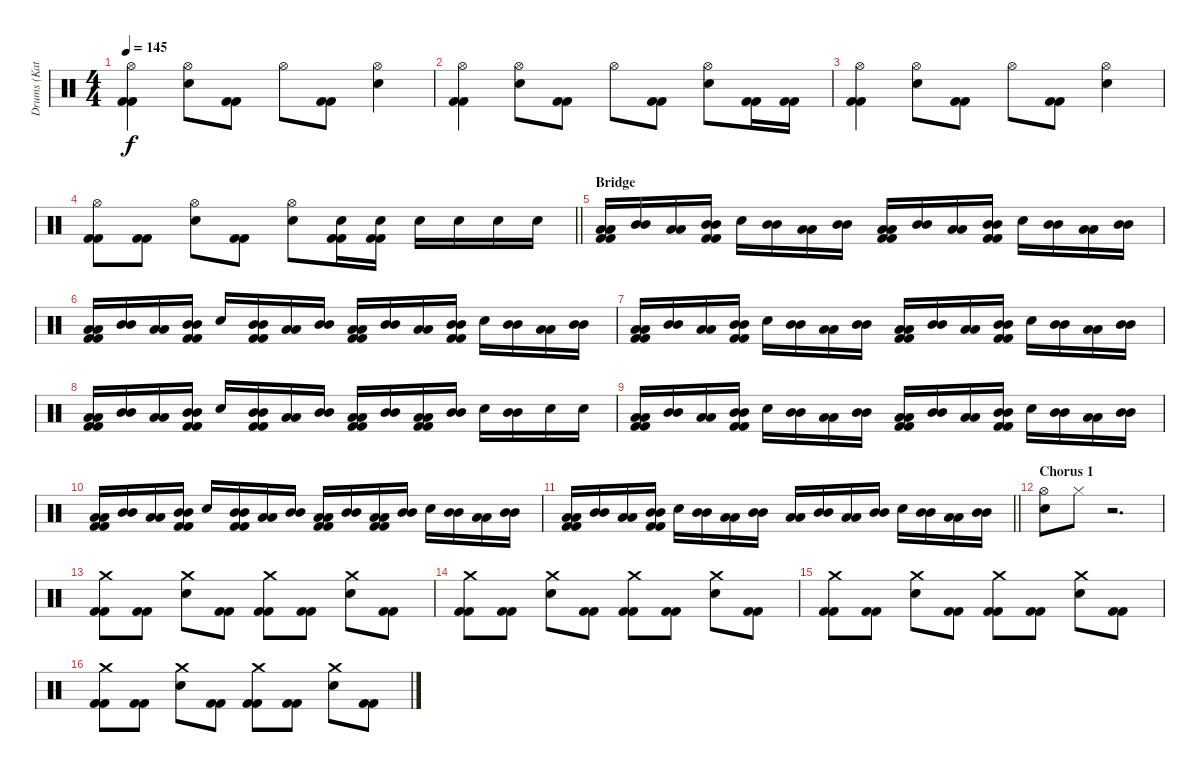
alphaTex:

\track ("Drums (Katsuma)" "Drums (Kat") {instrument percussion}
\staff {score}
\articulation defaults
\ts (4 4)
\tempo 145
\clef neutral
\ks c
("Hi-Hat (open)" "Kick (hit) 2" "Kick (hit) 2").4{dy f} ("Hi-Hat (open)" "Electric Snare (hit)").8 ("Kick (hit) 2" "Kick (hit) 2").8 "Hi-Hat (open)".8 ("Kick (hit) 2" "Kick (hit) 2").8 ("Hi-Hat (open)" "Electric Snare (hit)").4 |
("Hi-Hat (open)" "Kick (hit) 2" "Kick (hit) 2").4 ("Hi-Hat (open)" "Electric Snare (hit)").8 ("Kick (hit) 2" "Kick (hit) 2").8 "Hi-Hat (open)".8 ("Kick (hit) 2" "Kick (hit) 2").8 ("Hi-Hat (open)" "Electric Snare (hit)").8 ("Kick (hit) 2" "Kick (hit) 2").16 ("Kick (hit) 2" "Kick (hit) 2").16 |
("Hi-Hat (open)" "Kick (hit) 2" "Kick (hit) 2").4 ("Hi-Hat (open)" "Electric Snare (hit)").8 ("Kick (hit) 2" "Kick (hit) 2").8 "Hi-Hat (open)".8 ("Kick (hit) 2" "Kick (hit) 2").8 ("Hi-Hat (open)" "Electric Snare (hit)").4 |
\barLineRight lightlight
("Hi-Hat (open)" "Kick (hit) 2" "Kick (hit) 2").8 ("Kick (hit) 2" "Kick (hit) 2").8 ("Hi-Hat (open)" "Electric Snare (hit)").8 ("Kick (hit) 2" "Kick (hit) 2").8 ("Hi-Hat (open)" "Electric Snare (hit)").8 ("Electric Snare (hit)" "Kick (hit) 2" "Kick (hit) 2").16 ("Electric Snare (hit)" "Kick (hit) 2" "Kick (hit) 2").16 "Electric Snare (hit)".16 "Electric Snare (hit)".16 "Electric Snare (hit)".16 "Electric Snare (hit)".16 |
\section ("" "Bridge")
("Low Tom (hit)" "Low Tom (hit)" "Kick (hit) 2" "Kick (hit) 2").16 ("Mid Tom (hit)" "Mid Tom (hit)").16 ("Low Tom (hit)" "Low Tom (hit)").16 ("Mid Tom (hit)" "Mid Tom (hit)" "Kick (hit) 2" "Kick (hit) 2").16 "Electric Snare (hit)".16 ("Mid Tom (hit)" "Mid Tom (hit)").16 ("Low Tom (hit)" "Low Tom (hit)").16 ("Mid Tom (hit)" "Mid Tom (hit)").16 ("Low Tom (hit)" "Low Tom (hit)" "Kick (hit) 2" "Kick (hit) 2").16 ("Mid Tom (hit)" "Mid Tom (hit)").16 ("Low Tom (hit)" "Low Tom (hit)").16 ("Mid Tom (hit)" "Mid Tom (hit)" "Kick (hit) 2" "Kick (hit) 2").16 "Electric Snare (hit)".16 ("Mid Tom (hit)" "Mid Tom (hit)").16 ("Low Tom (hit)" "Low Tom (hit)").16 ("Mid Tom (hit)" "Mid Tom (hit)").16 |
("Low Tom (hit)" "Low Tom (hit)" "Kick (hit) 2" "Kick (hit) 2").16 ("Mid Tom (hit)" "Mid Tom (hit)").16 ("Low Tom (hit)" "Low Tom (hit)").16 ("Mid Tom (hit)" "Mid Tom (hit)" "Kick (hit) 2" "Kick (hit) 2").16 "Electric Snare (hit)".16 ("Mid Tom (hit)" "Mid Tom (hit)" "Kick (hit) 2" "Kick (hit) 2").16 ("Low Tom (hit)" "Low Tom (hit)").16 ("Mid Tom (hit)" "Mid Tom (hit)").16 ("Low Tom (hit)" "Low Tom (hit)" "Kick (hit) 2" "Kick (hit) 2").16 ("Mid Tom (hit)" "Mid Tom (hit)").16 ("Low Tom (hit)" "Low Tom (hit)").16 ("Mid Tom (hit)" "Mid Tom (hit)" "Kick (hit) 2" "Kick (hit) 2").16 "Electric Snare (hit)".16 ("Mid Tom (hit)" "Mid Tom (hit)").16 ("Low Tom (hit)" "Low Tom (hit)").16 ("Mid Tom (hit)" "Mid Tom (hit)").16 |
("Low Tom (hit)" "Low Tom (hit)" "Kick (hit) 2" "Kick (hit) 2").16 ("Mid Tom (hit)" "Mid Tom (hit)").16 ("Low Tom (hit)" "Low Tom (hit)").16 ("Mid Tom (hit)" "Mid Tom (hit)" "Kick (hit) 2" "Kick (hit) 2").16 "Electric Snare (hit)".16 ("Mid Tom (hit)" "Mid Tom (hit)").16 ("Low Tom (hit)" "Low Tom (hit)").16 ("Mid Tom (hit)" "Mid Tom (hit)").16 ("Low Tom (hit)" "Low Tom (hit)" "Kick (hit) 2" "Kick (hit) 2").16 ("Mid Tom (hit)" "Mid Tom (hit)").16 ("Low Tom (hit)" "Low Tom (hit)").16 ("Mid Tom (hit)" "Mid Tom (hit)" "Kick (hit) 2" "Kick (hit) 2").16 "Electric Snare (hit)".16 ("Mid Tom (hit)" "Mid Tom (hit)").16 ("Low Tom (hit)" "Low Tom (hit)").16 ("Mid Tom (hit)" "Mid Tom (hit)").16 |
("Low Tom (hit)" "Low Tom (hit)" "Kick (hit) 2" "Kick (hit) 2").16 ("Mid Tom (hit)" "Mid Tom (hit)").16 ("Low Tom (hit)" "Low Tom (hit)").16 ("Mid Tom (hit)" "Mid Tom (hit)" "Kick (hit) 2" "Kick (hit) 2").16 "Electric Snare (hit)".16 ("Mid Tom (hit)" "Mid Tom (hit)" "Kick (hit) 2" "Kick (hit) 2").16 ("Low Tom (hit)" "Low Tom (hit)").16 ("Mid Tom (hit)" "Mid Tom (hit)").16 ("Low Tom (hit)" "Low Tom (hit)" "Kick (hit) 2" "Kick (hit) 2").16 ("Mid Tom (hit)" "Mid Tom (hit)").16 ("Low Tom (hit)" "Low Tom (hit)" "Kick (hit) 2" "Kick (hit) 2").16 ("Mid Tom (hit)" "Mid Tom (hit)").16 "Electric Snare (hit)".16 ("Mid Tom (hit)" "Mid Tom (hit)").16 "Electric Snare (hit)".16 "Electric Snare (hit)".16 |
("Low Tom (hit)" "Low Tom (hit)" "Kick (hit) 2" "Kick (hit) 2").16 ("Mid Tom (hit)" "Mid Tom (hit)").16 ("Low Tom (hit)" "Low Tom (hit)").16 ("Mid Tom (hit)" "Mid Tom (hit)" "Kick (hit) 2" "Kick (hit) 2").16 "Electric Snare (hit)".16 ("Mid Tom (hit)" "Mid Tom (hit)").16 ("Low Tom (hit)" "Low Tom (hit)").16 ("Mid Tom (hit)" "Mid Tom (hit)").16 ("Low Tom (hit)" "Low Tom (hit)" "Kick (hit) 2" "Kick (hit) 2").16 ("Mid Tom (hit)" "Mid Tom (hit)").16 ("Low Tom (hit)" "Low Tom (hit)").16 ("Mid Tom (hit)" "Mid Tom (hit)" "Kick (hit) 2" "Kick (hit) 2").16 "Electric Snare (hit)".16 ("Mid Tom (hit)" "Mid Tom (hit)").16 ("Low Tom (hit)" "Low Tom (hit)").16 ("Mid Tom (hit)" "Mid Tom (hit)").16 |
("Low Tom (hit)" "Low Tom (hit)" "Kick (hit) 2" "Kick (hit) 2").16 ("Mid Tom (hit)" "Mid Tom (hit)").16 ("Low Tom (hit)" "Low Tom (hit)").16 ("Mid Tom (hit)" "Mid Tom (hit)" "Kick (hit) 2" "Kick (hit) 2").16 "Electric Snare (hit)".16 ("Mid Tom (hit)" "Mid Tom (hit)" "Kick (hit) 2" "Kick (hit) 2").16 ("Low Tom (hit)" "Low Tom (hit)").16 ("Mid Tom (hit)" "Mid Tom (hit)").16 ("Low Tom (hit)" "Low Tom (hit)" "Kick (hit) 2" "Kick (hit) 2").16 ("Mid Tom (hit)" "Mid Tom (hit)").16 ("Low Tom (hit)" "Low Tom (hit)" "Kick (hit) 2" "Kick (hit) 2").16 ("Mid Tom (hit)" "Mid Tom (hit)").16 "Electric Snare (hit)".16 ("Mid Tom (hit)" "Mid Tom (hit)").16 ("Low Tom (hit)" "Low Tom (hit)").16 ("Mid Tom (hit)" "Mid Tom (hit)").16 |
\barLineRight lightlight
("Low Tom (hit)" "Low Tom (hit)" "Kick (hit) 2" "Kick (hit) 2").16 ("Mid Tom (hit)" "Mid Tom (hit)").16 ("Low Tom (hit)" "Low Tom (hit)").16 ("Mid Tom (hit)" "Mid Tom (hit)" "Kick (hit) 2" "Kick (hit) 2").16 "Electric Snare (hit)".16 ("Mid Tom (hit)" "Mid Tom (hit)").16 ("Low Tom (hit)" "Low Tom (hit)").16 ("Mid Tom (hit)" "Mid Tom (hit)").16 ("Low Tom (hit)" "Low Tom (hit)").16 ("Mid Tom (hit)" "Mid Tom (hit)").16 ("Low Tom (hit)" "Low Tom (hit)").16 ("Mid Tom (hit)" "Mid Tom (hit)").16 "Electric Snare (hit)".16 ("Mid Tom (hit)" "Mid Tom (hit)").16 ("Low Tom (hit)" "Low Tom (hit)").16 ("Mid Tom (hit)" "Mid Tom (hit)").16 |
\section ("" "Chorus 1")
("Hi-Hat (open)" "Electric Snare (hit)").8 "Hi-Hat (closed)".8 r.2{d} |
("Crash medium (hit)" "Kick (hit) 2" "Kick (hit) 2").8 ("Kick (hit) 2" "Kick (hit) 2").8 ("Crash medium (hit)" "Electric Snare (hit)").8 ("Kick (hit) 2" "Kick (hit) 2").8 ("Crash medium (hit)" "Kick (hit) 2" "Kick (hit) 2").8 ("Kick (hit) 2" "Kick (hit) 2").8 ("Crash medium (hit)" "Electric Snare (hit)").8 ("Kick (hit) 2" "Kick (hit) 2").8 |
("Crash medium (hit)" "Kick (hit) 2" "Kick (hit) 2").8 ("Kick (hit) 2" "Kick (hit) 2").8 ("Crash medium (hit)" "Electric Snare (hit)").8 ("Kick (hit) 2" "Kick (hit) 2").8 ("Crash medium (hit)" "Kick (hit) 2" "Kick (hit) 2").8 ("Kick (hit) 2" "Kick (hit) 2").8 ("Crash medium (hit)" "Electric Snare (hit)").8 ("Kick (hit) 2" "Kick (hit) 2").8 |
("Crash medium (hit)" "Kick (hit) 2" "Kick (hit) 2").8 ("Kick (hit) 2" "Kick (hit) 2").8 ("Crash medium (hit)" "Electric Snare (hit)").8 ("Kick (hit) 2" "Kick (hit) 2").8 ("Crash medium (hit)" "Kick (hit) 2" "Kick (hit) 2").8 ("Kick (hit) 2" "Kick (hit) 2").8 ("Crash medium (hit)" "Electric Snare (hit)").8 ("Kick (hit) 2" "Kick (hit) 2").8 |
("Crash medium (hit)" "Kick (hit) 2" "Kick (hit) 2").8 ("Kick (hit) 2" "Kick (hit) 2").8 ("Crash medium (hit)" "Electric Snare (hit)").8 ("Kick (hit) 2" "Kick (hit) 2").8 ("Crash medium (hit)" "Kick (hit) 2" "Kick (hit) 2").8 ("Kick (hit) 2" "Kick (hit) 2").8 ("Crash medium (hit)" "Electric Snare (hit)").8 ("Kick (hit) 2" "Kick (hit) 2").8
